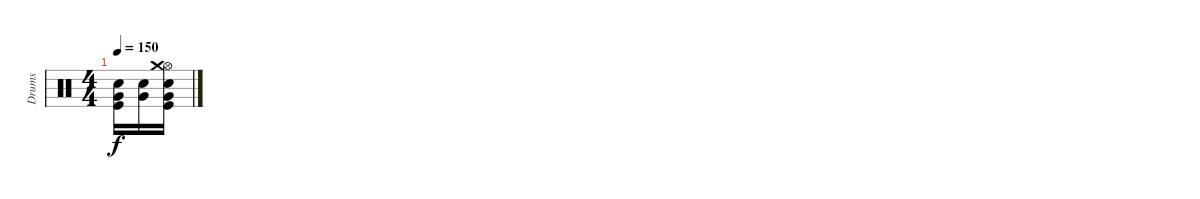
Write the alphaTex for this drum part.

\track ("Drums" "Drums") {instrument percussion}
\staff {score}
\articulation defaults
\ts (4 4)
\tempo 150
\clef neutral
\ks c
("Very Low Tom (hit)" "Snare (hit) 2" "Kick (hit)").16{dy f} ("Very Low Tom (hit)" "Snare (hit) 2").16 ("Very Low Tom (hit)" "Snare (hit) 2" "Kick (hit)" "Hi-Hat (open)" "Crash medium (hit)").16
